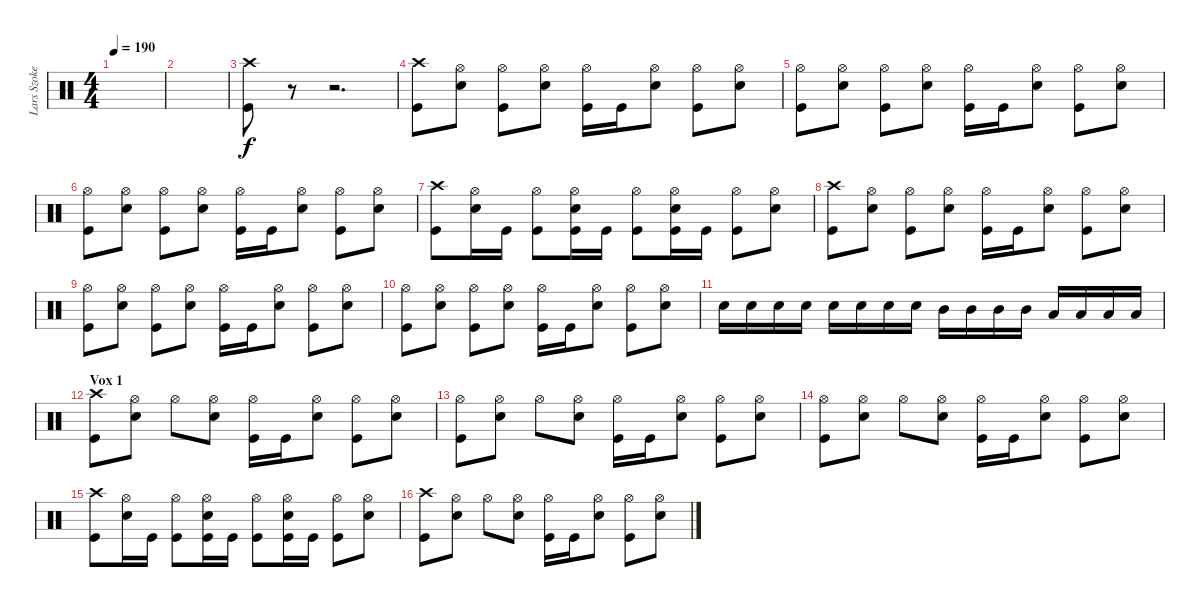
\track ("Lars Szoke" "Lars Szoke") {instrument percussion}
\staff {score}
\articulation defaults
\ts (4 4)
\tempo 190
\clef neutral
\ks c
|
|
("Crash high (hit)" "Kick (hit)").8 r.8 r.2{d} |
("Crash high (hit)" "Kick (hit)").8 ("Hi-Hat (open)" "Snare (hit) 2").8 ("Hi-Hat (open)" "Kick (hit)").8 ("Hi-Hat (open)" "Snare (hit) 2").8 ("Hi-Hat (open)" "Kick (hit)").16 "Kick (hit)".16 ("Hi-Hat (open)" "Snare (hit) 2").8 ("Hi-Hat (open)" "Kick (hit)").8 ("Hi-Hat (open)" "Snare (hit) 2").8 |
("Hi-Hat (open)" "Kick (hit)").8 ("Hi-Hat (open)" "Snare (hit) 2").8 ("Hi-Hat (open)" "Kick (hit)").8 ("Hi-Hat (open)" "Snare (hit) 2").8 ("Hi-Hat (open)" "Kick (hit)").16 "Kick (hit)".16 ("Hi-Hat (open)" "Snare (hit) 2").8 ("Hi-Hat (open)" "Kick (hit)").8 ("Hi-Hat (open)" "Snare (hit) 2").8 |
("Hi-Hat (open)" "Kick (hit)").8 ("Hi-Hat (open)" "Snare (hit) 2").8 ("Hi-Hat (open)" "Kick (hit)").8 ("Hi-Hat (open)" "Snare (hit) 2").8 ("Hi-Hat (open)" "Kick (hit)").16 "Kick (hit)".16 ("Hi-Hat (open)" "Snare (hit) 2").8 ("Hi-Hat (open)" "Kick (hit)").8 ("Hi-Hat (open)" "Snare (hit) 2").8 |
("Crash high (hit)" "Kick (hit)").8 ("Hi-Hat (open)" "Snare (hit) 2").16 "Kick (hit)".16 ("Hi-Hat (open)" "Kick (hit)").8 ("Hi-Hat (open)" "Snare (hit) 2" "Kick (hit)").16 "Kick (hit)".16 ("Hi-Hat (open)" "Kick (hit)").8 ("Hi-Hat (open)" "Snare (hit) 2" "Kick (hit)").16 "Kick (hit)".16 ("Hi-Hat (open)" "Kick (hit)").8 ("Hi-Hat (open)" "Snare (hit) 2").8 |
("Crash high (hit)" "Kick (hit)").8 ("Hi-Hat (open)" "Snare (hit) 2").8 ("Hi-Hat (open)" "Kick (hit)").8 ("Hi-Hat (open)" "Snare (hit) 2").8 ("Hi-Hat (open)" "Kick (hit)").16 "Kick (hit)".16 ("Hi-Hat (open)" "Snare (hit) 2").8 ("Hi-Hat (open)" "Kick (hit)").8 ("Hi-Hat (open)" "Snare (hit) 2").8 |
("Hi-Hat (open)" "Kick (hit)").8 ("Hi-Hat (open)" "Snare (hit) 2").8 ("Hi-Hat (open)" "Kick (hit)").8 ("Hi-Hat (open)" "Snare (hit) 2").8 ("Hi-Hat (open)" "Kick (hit)").16 "Kick (hit)".16 ("Hi-Hat (open)" "Snare (hit) 2").8 ("Hi-Hat (open)" "Kick (hit)").8 ("Hi-Hat (open)" "Snare (hit) 2").8 |
("Hi-Hat (open)" "Kick (hit)").8 ("Hi-Hat (open)" "Snare (hit) 2").8 ("Hi-Hat (open)" "Kick (hit)").8 ("Hi-Hat (open)" "Snare (hit) 2").8 ("Hi-Hat (open)" "Kick (hit)").16 "Kick (hit)".16 ("Hi-Hat (open)" "Snare (hit) 2").8 ("Hi-Hat (open)" "Kick (hit)").8 ("Hi-Hat (open)" "Snare (hit) 2").8 |
"Snare (hit) 2".16 "Snare (hit) 2".16 "Snare (hit) 2".16 "Snare (hit) 2".16 "Snare (hit) 2".16 "Snare (hit) 2".16 "Snare (hit) 2".16 "Snare (hit) 2".16 "Mid Tom (hit)".16 "Mid Tom (hit)".16 "Mid Tom (hit)".16 "Mid Tom (hit)".16 "Low Tom (hit)".16 "Low Tom (hit)".16 "Low Tom (hit)".16 "Low Tom (hit)".16 |
\section ("" "Vox 1")
("Crash high (hit)" "Kick (hit)").8 ("Hi-Hat (open)" "Snare (hit) 2").8 "Hi-Hat (open)".8 ("Hi-Hat (open)" "Snare (hit) 2").8 ("Hi-Hat (open)" "Kick (hit)").16 "Kick (hit)".16 ("Hi-Hat (open)" "Snare (hit) 2").8 ("Hi-Hat (open)" "Kick (hit)").8 ("Hi-Hat (open)" "Snare (hit) 2").8 |
("Hi-Hat (open)" "Kick (hit)").8 ("Hi-Hat (open)" "Snare (hit) 2").8 "Hi-Hat (open)".8 ("Hi-Hat (open)" "Snare (hit) 2").8 ("Hi-Hat (open)" "Kick (hit)").16 "Kick (hit)".16 ("Hi-Hat (open)" "Snare (hit) 2").8 ("Hi-Hat (open)" "Kick (hit)").8 ("Hi-Hat (open)" "Snare (hit) 2").8 |
("Hi-Hat (open)" "Kick (hit)").8 ("Hi-Hat (open)" "Snare (hit) 2").8 "Hi-Hat (open)".8 ("Hi-Hat (open)" "Snare (hit) 2").8 ("Hi-Hat (open)" "Kick (hit)").16 "Kick (hit)".16 ("Hi-Hat (open)" "Snare (hit) 2").8 ("Hi-Hat (open)" "Kick (hit)").8 ("Hi-Hat (open)" "Snare (hit) 2").8 |
("Crash high (hit)" "Kick (hit)").8 ("Hi-Hat (open)" "Snare (hit) 2").16 "Kick (hit)".16 ("Hi-Hat (open)" "Kick (hit)").8 ("Hi-Hat (open)" "Snare (hit) 2" "Kick (hit)").16 "Kick (hit)".16 ("Hi-Hat (open)" "Kick (hit)").8 ("Hi-Hat (open)" "Snare (hit) 2" "Kick (hit)").16 "Kick (hit)".16 ("Hi-Hat (open)" "Kick (hit)").8 ("Hi-Hat (open)" "Snare (hit) 2").8 |
("Crash high (hit)" "Kick (hit)").8 ("Hi-Hat (open)" "Snare (hit) 2").8 "Hi-Hat (open)".8 ("Hi-Hat (open)" "Snare (hit) 2").8 ("Hi-Hat (open)" "Kick (hit)").16 "Kick (hit)".16 ("Hi-Hat (open)" "Snare (hit) 2").8 ("Hi-Hat (open)" "Kick (hit)").8 ("Hi-Hat (open)" "Snare (hit) 2").8
